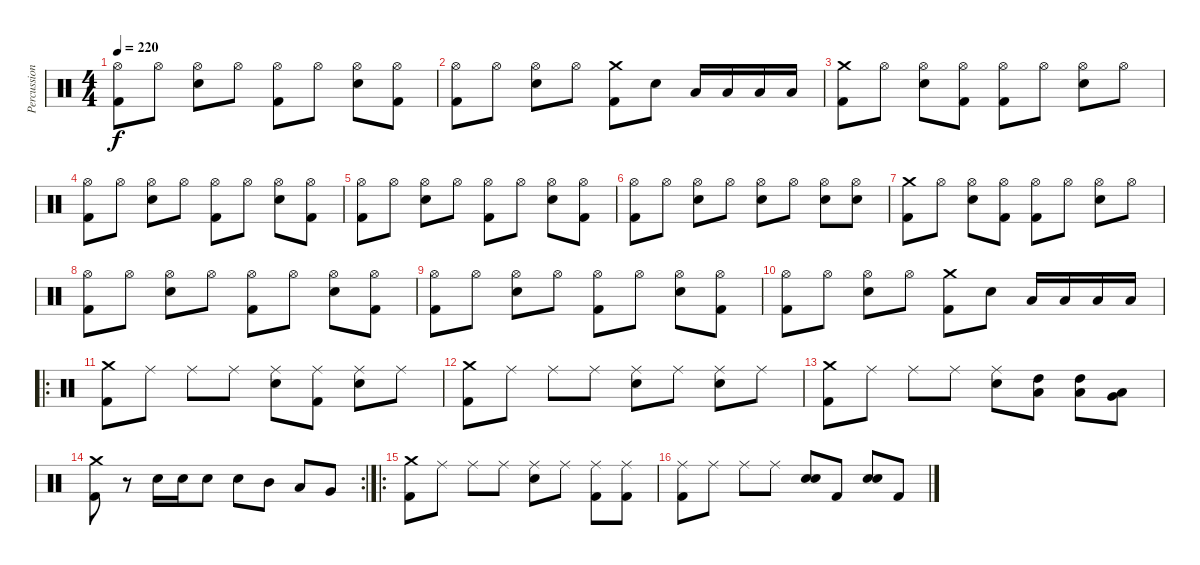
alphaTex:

\track ("Percussion" "Percussion") {instrument percussion}
\staff {score}
\articulation defaults
\ts (4 4)
\tempo 220
\clef neutral
\ks c
("Kick (hit) 2" "Hi-Hat (open)").8{dy f} "Hi-Hat (open)".8 ("Snare (hit) 2" "Hi-Hat (open)").8 "Hi-Hat (open)".8 ("Kick (hit) 2" "Hi-Hat (open)").8 "Hi-Hat (open)".8 ("Snare (hit) 2" "Hi-Hat (open)").8 ("Kick (hit) 2" "Hi-Hat (open)").8 |
("Kick (hit) 2" "Hi-Hat (open)").8 "Hi-Hat (open)".8 ("Snare (hit) 2" "Hi-Hat (open)").8 "Hi-Hat (open)".8 ("Kick (hit) 2" "Crash medium (hit)").8 "Snare (hit) 2".8 "Low Tom (hit)".16 "Low Tom (hit)".16 "Low Tom (hit)".16 "Low Tom (hit)".16 |
("Crash medium (hit)" "Kick (hit) 2").8 "Hi-Hat (open)".8 ("Snare (hit) 2" "Hi-Hat (open)").8 ("Kick (hit) 2" "Hi-Hat (open)").8 ("Kick (hit) 2" "Hi-Hat (open)").8 "Hi-Hat (open)".8 ("Snare (hit) 2" "Hi-Hat (open)").8 "Hi-Hat (open)".8 |
("Kick (hit) 2" "Hi-Hat (open)").8 "Hi-Hat (open)".8 ("Snare (hit) 2" "Hi-Hat (open)").8 "Hi-Hat (open)".8 ("Kick (hit) 2" "Hi-Hat (open)").8 "Hi-Hat (open)".8 ("Snare (hit) 2" "Hi-Hat (open)").8 ("Kick (hit) 2" "Hi-Hat (open)").8 |
("Kick (hit) 2" "Hi-Hat (open)").8 "Hi-Hat (open)".8 ("Snare (hit) 2" "Hi-Hat (open)").8 "Hi-Hat (open)".8 ("Kick (hit) 2" "Hi-Hat (open)").8 "Hi-Hat (open)".8 ("Snare (hit) 2" "Hi-Hat (open)").8 ("Kick (hit) 2" "Hi-Hat (open)").8 |
("Kick (hit) 2" "Hi-Hat (open)").8 "Hi-Hat (open)".8 ("Snare (hit) 2" "Hi-Hat (open)").8 "Hi-Hat (open)".8 ("Snare (hit) 2" "Hi-Hat (open)").8 "Hi-Hat (open)".8 ("Snare (hit) 2" "Hi-Hat (open)").8 ("Snare (hit) 2" "Hi-Hat (open)").8 |
("Crash medium (hit)" "Kick (hit) 2").8 "Hi-Hat (open)".8 ("Snare (hit) 2" "Hi-Hat (open)").8 ("Kick (hit) 2" "Hi-Hat (open)").8 ("Kick (hit) 2" "Hi-Hat (open)").8 "Hi-Hat (open)".8 ("Snare (hit) 2" "Hi-Hat (open)").8 "Hi-Hat (open)".8 |
("Kick (hit) 2" "Hi-Hat (open)").8 "Hi-Hat (open)".8 ("Snare (hit) 2" "Hi-Hat (open)").8 "Hi-Hat (open)".8 ("Kick (hit) 2" "Hi-Hat (open)").8 "Hi-Hat (open)".8 ("Snare (hit) 2" "Hi-Hat (open)").8 ("Kick (hit) 2" "Hi-Hat (open)").8 |
("Kick (hit) 2" "Hi-Hat (open)").8 "Hi-Hat (open)".8 ("Snare (hit) 2" "Hi-Hat (open)").8 "Hi-Hat (open)".8 ("Kick (hit) 2" "Hi-Hat (open)").8 "Hi-Hat (open)".8 ("Snare (hit) 2" "Hi-Hat (open)").8 ("Kick (hit) 2" "Hi-Hat (open)").8 |
("Kick (hit) 2" "Hi-Hat (open)").8 "Hi-Hat (open)".8 ("Snare (hit) 2" "Hi-Hat (open)").8 "Hi-Hat (open)".8 ("Kick (hit) 2" "Crash medium (hit)").8 "Snare (hit) 2".8 "Low Tom (hit)".16 "Low Tom (hit)".16 "Low Tom (hit)".16 "Low Tom (hit)".16 |
\ro
("Crash medium (hit)" "Kick (hit) 2").8 "Ride (middle)".8 "Ride (middle)".8 "Ride (middle)".8 ("Snare (hit) 2" "Ride (middle)").8 ("Kick (hit) 2" "Ride (middle)").8 ("Snare (hit) 2" "Ride (middle)").8 "Ride (middle)".8 |
("Kick (hit) 2" "Crash medium (hit)").8 "Ride (middle)".8 "Ride (middle)".8 "Ride (middle)".8 ("Snare (hit) 2" "Ride (middle)").8 "Ride (middle)".8 ("Snare (hit) 2" "Ride (middle)").8 "Ride (middle)".8 |
("Kick (hit) 2" "Crash medium (hit)").8 "Ride (middle)".8 "Ride (middle)".8 "Ride (middle)".8 ("Snare (hit) 2" "Ride (middle)").8 ("Low Tom (hit)" "High Tom (hit)").8 ("Low Tom (hit)" "High Tom (hit)").8 ("Very Low Tom (hit)" "Low Tom (hit)").8 |
\rc 2
("Crash medium (hit)" "Kick (hit) 2").8 r.8 "Snare (hit) 2".16 "Snare (hit) 2".16 "Snare (hit) 2".8 "Snare (hit) 2".8 "Mid Tom (hit)".8 "Low Tom (hit)".8 "Very Low Tom (hit)".8 |
\ro
("Crash medium (hit)" "Kick (hit) 2").8 "Ride (middle)".8 "Ride (middle)".8 "Ride (middle)".8 ("Snare (hit) 2" "Ride (middle)").8 "Ride (middle)".8 ("Kick (hit) 2" "Ride (middle)").8 ("Kick (hit) 2" "Ride (middle)").8 |
("Kick (hit) 2" "Ride (middle)").8 "Ride (middle)".8 "Ride (middle)".8 "Ride (middle)".8 ("Snare (hit) 2" "Snare (hit) 2").8 "Kick (hit) 2".8 ("Snare (hit) 2" "Snare (hit) 2").8 "Kick (hit) 2".8
